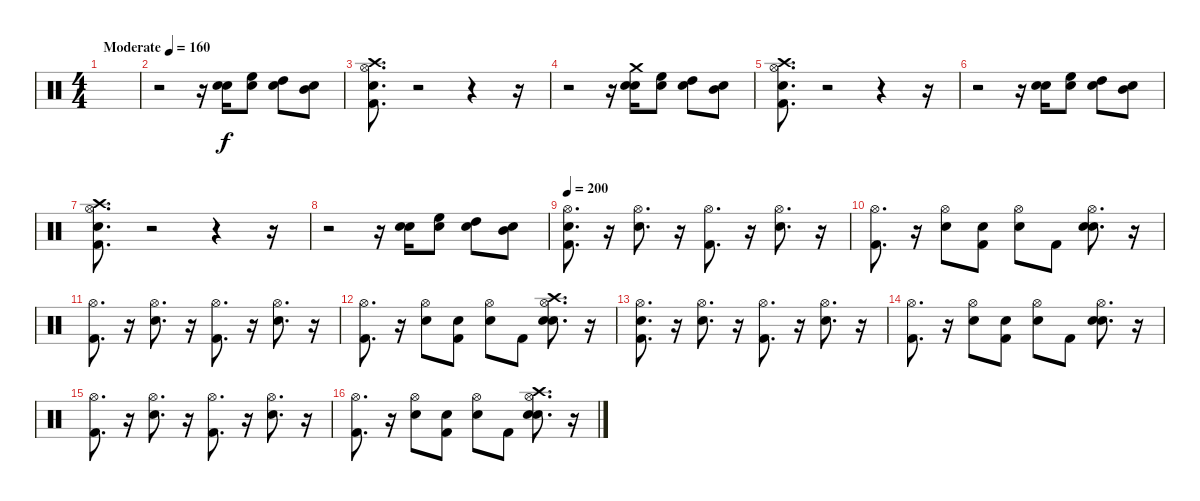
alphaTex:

\track "" {instrument percussion}
\staff {score}
\articulation defaults
\ts (4 4)
\tempo (160 "Moderate")
\clef neutral
\ks c
|
r.2 r.16 ("Snare (hit)" "Snare (hit) 2").16 ("Snare (hit)" "High Floor Tom (hit)").8 ("Snare (hit)" "High Tom (hit)").8 ("Snare (hit)" "Mid Tom (hit)").8 |
("Snare (hit)" "Kick (hit) 2" "Hi-Hat (open)" "Crash high (hit)").8{d} r.2 r.4 r.16 |
r.2 r.16 ("Snare (hit)" "Snare (hit) 2" "Crash medium (hit)").16 ("Snare (hit)" "High Floor Tom (hit)").8 ("Snare (hit)" "High Tom (hit)").8 ("Snare (hit)" "Mid Tom (hit)").8 |
("Snare (hit)" "Kick (hit) 2" "Hi-Hat (open)" "Crash high (hit)").8{d} r.2 r.4 r.16 |
r.2 r.16 ("Snare (hit)" "Snare (hit) 2").16 ("Snare (hit)" "High Floor Tom (hit)").8 ("Snare (hit)" "High Tom (hit)").8 ("Snare (hit)" "Mid Tom (hit)").8 |
("Snare (hit)" "Kick (hit) 2" "Hi-Hat (open)" "Crash high (hit)").8{d} r.2 r.4 r.16 |
r.2 r.16 ("Snare (hit)" "Snare (hit) 2").16 ("Snare (hit)" "High Floor Tom (hit)").8 ("Snare (hit)" "High Tom (hit)").8 ("Snare (hit)" "Mid Tom (hit)").8 |
\tempo 200
("Snare (hit)" "Kick (hit) 2" "Hi-Hat (open)").8{d} r.16 ("Snare (hit) 2" "Hi-Hat (open)").8{d} r.16 ("Kick (hit) 2" "Hi-Hat (open)").8{d} r.16 ("Snare (hit) 2" "Hi-Hat (open)").8{d} r.16 |
("Kick (hit) 2" "Hi-Hat (open)").8{d} r.16 ("Snare (hit) 2" "Hi-Hat (open)").8 ("Snare (hit)" "Kick (hit) 2").8 ("Snare (hit)" "Hi-Hat (open)").8 "Kick (hit) 2".8 ("Snare (hit)" "Snare (hit) 2" "Hi-Hat (open)").8{d} r.16 |
("Kick (hit) 2" "Hi-Hat (open)").8{d} r.16 ("Snare (hit) 2" "Hi-Hat (open)").8{d} r.16 ("Kick (hit) 2" "Hi-Hat (open)").8{d} r.16 ("Snare (hit) 2" "Hi-Hat (open)").8{d} r.16 |
("Kick (hit) 2" "Hi-Hat (open)").8{d} r.16 ("Snare (hit) 2" "Hi-Hat (open)").8 ("Snare (hit)" "Kick (hit) 2").8 ("Snare (hit)" "Hi-Hat (open)").8 "Kick (hit) 2".8 ("Snare (hit)" "Snare (hit) 2" "Hi-Hat (open)" "Crash high (hit)").8{d} r.16 |
("Snare (hit)" "Kick (hit) 2" "Hi-Hat (open)").8{d} r.16 ("Snare (hit) 2" "Hi-Hat (open)").8{d} r.16 ("Kick (hit) 2" "Hi-Hat (open)").8{d} r.16 ("Snare (hit) 2" "Hi-Hat (open)").8{d} r.16 |
("Kick (hit) 2" "Hi-Hat (open)").8{d} r.16 ("Snare (hit) 2" "Hi-Hat (open)").8 ("Snare (hit)" "Kick (hit) 2").8 ("Snare (hit)" "Hi-Hat (open)").8 "Kick (hit) 2".8 ("Snare (hit)" "Snare (hit) 2" "Hi-Hat (open)").8{d} r.16 |
("Kick (hit) 2" "Hi-Hat (open)").8{d} r.16 ("Snare (hit) 2" "Hi-Hat (open)").8{d} r.16 ("Kick (hit) 2" "Hi-Hat (open)").8{d} r.16 ("Snare (hit) 2" "Hi-Hat (open)").8{d} r.16 |
("Kick (hit) 2" "Hi-Hat (open)").8{d} r.16 ("Snare (hit) 2" "Hi-Hat (open)").8 ("Snare (hit)" "Kick (hit) 2").8 ("Snare (hit)" "Hi-Hat (open)").8 "Kick (hit) 2".8 ("Snare (hit)" "Snare (hit) 2" "Hi-Hat (open)" "Crash high (hit)").8{d} r.16
